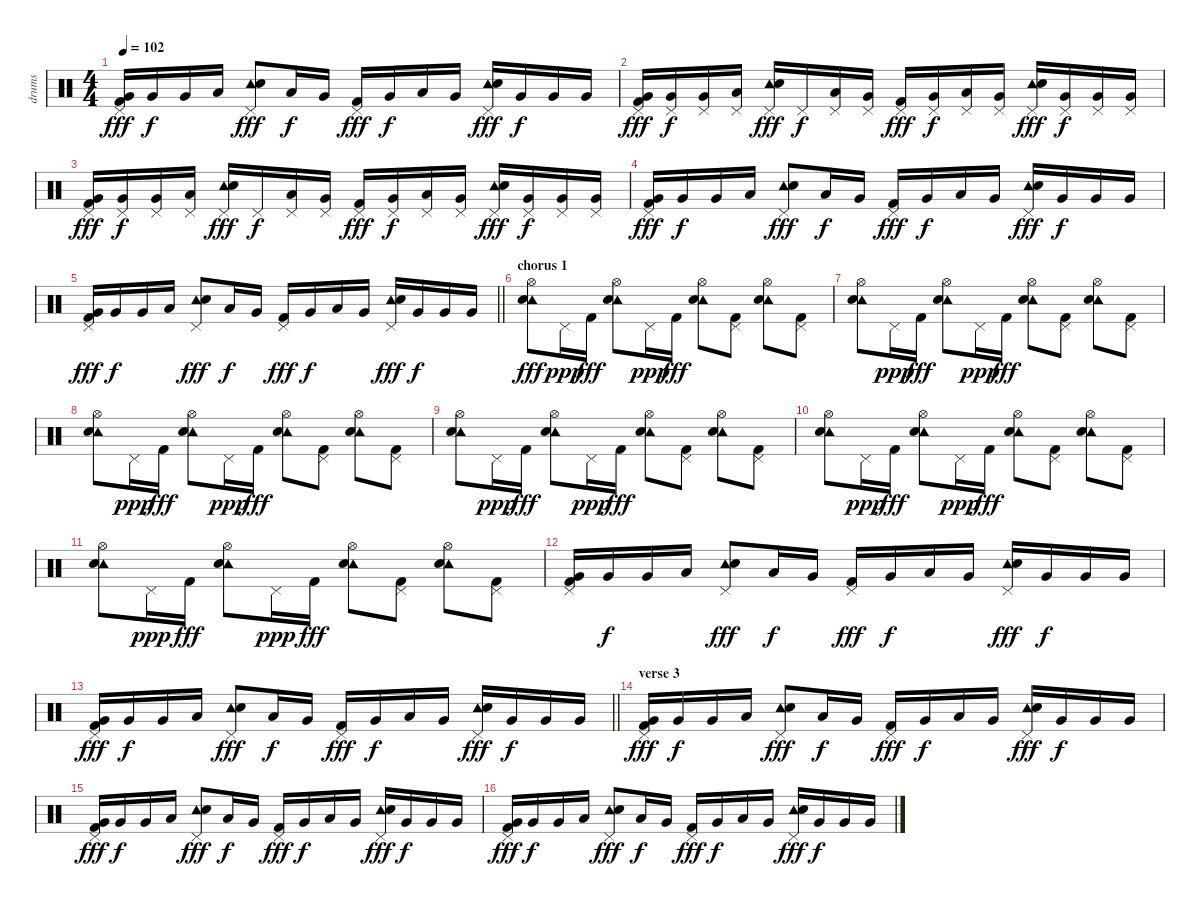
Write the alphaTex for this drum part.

\track ("drums" "drums") {instrument percussion}
\staff {score}
\articulation defaults
\ts (4 4)
\tempo 102
\clef neutral
\ks c
("Pedal Hi-Hat (hit)" "Very Low Tom (hit)" "Kick (hit) 2").16{dy fff} "Very Low Tom (hit)".16{dy f} "Very Low Tom (hit)".16 "Low Tom (hit)".16 ("Tambourine (hit)" "Pedal Hi-Hat (hit)" "Electric Snare (hit)").8{dy fff} "Low Tom (hit)".16{dy f} "Very Low Tom (hit)".16 ("Pedal Hi-Hat (hit)" "Kick (hit) 2").16{dy fff} "Very Low Tom (hit)".16{dy f} "Low Tom (hit)".16 "Very Low Tom (hit)".16 ("Tambourine (hit)" "Pedal Hi-Hat (hit)" "Electric Snare (hit)").16{dy fff} "Very Low Tom (hit)".16{dy f} "Very Low Tom (hit)".16 "Very Low Tom (hit)".16 |
("Pedal Hi-Hat (hit)" "Very Low Tom (hit)" "Kick (hit) 2").16{dy fff} ("Pedal Hi-Hat (hit)" "Very Low Tom (hit)").16{dy f} ("Pedal Hi-Hat (hit)" "Very Low Tom (hit)").16 ("Pedal Hi-Hat (hit)" "Low Tom (hit)").16 ("Tambourine (hit)" "Pedal Hi-Hat (hit)" "Electric Snare (hit)").16{dy fff} "Pedal Hi-Hat (hit)".16{dy f} ("Pedal Hi-Hat (hit)" "Low Tom (hit)").16 ("Pedal Hi-Hat (hit)" "Very Low Tom (hit)").16 ("Pedal Hi-Hat (hit)" "Kick (hit) 2").16{dy fff} ("Pedal Hi-Hat (hit)" "Very Low Tom (hit)").16{dy f} ("Pedal Hi-Hat (hit)" "Low Tom (hit)").16 ("Pedal Hi-Hat (hit)" "Very Low Tom (hit)").16 ("Tambourine (hit)" "Pedal Hi-Hat (hit)" "Electric Snare (hit)").16{dy fff} ("Pedal Hi-Hat (hit)" "Very Low Tom (hit)").16{dy f} ("Pedal Hi-Hat (hit)" "Very Low Tom (hit)").16 ("Pedal Hi-Hat (hit)" "Very Low Tom (hit)").16 |
("Pedal Hi-Hat (hit)" "Very Low Tom (hit)" "Kick (hit) 2").16{dy fff} ("Pedal Hi-Hat (hit)" "Very Low Tom (hit)").16{dy f} ("Pedal Hi-Hat (hit)" "Very Low Tom (hit)").16 ("Pedal Hi-Hat (hit)" "Low Tom (hit)").16 ("Tambourine (hit)" "Pedal Hi-Hat (hit)" "Electric Snare (hit)").16{dy fff} "Pedal Hi-Hat (hit)".16{dy f} ("Pedal Hi-Hat (hit)" "Low Tom (hit)").16 ("Pedal Hi-Hat (hit)" "Very Low Tom (hit)").16 ("Pedal Hi-Hat (hit)" "Kick (hit) 2").16{dy fff} ("Pedal Hi-Hat (hit)" "Very Low Tom (hit)").16{dy f} ("Pedal Hi-Hat (hit)" "Low Tom (hit)").16 ("Pedal Hi-Hat (hit)" "Very Low Tom (hit)").16 ("Tambourine (hit)" "Pedal Hi-Hat (hit)" "Electric Snare (hit)").16{dy fff} ("Pedal Hi-Hat (hit)" "Very Low Tom (hit)").16{dy f} ("Pedal Hi-Hat (hit)" "Very Low Tom (hit)").16 ("Pedal Hi-Hat (hit)" "Very Low Tom (hit)").16 |
("Pedal Hi-Hat (hit)" "Very Low Tom (hit)" "Kick (hit) 2").16{dy fff} "Very Low Tom (hit)".16{dy f} "Very Low Tom (hit)".16 "Low Tom (hit)".16 ("Tambourine (hit)" "Pedal Hi-Hat (hit)" "Electric Snare (hit)").8{dy fff} "Low Tom (hit)".16{dy f} "Very Low Tom (hit)".16 ("Pedal Hi-Hat (hit)" "Kick (hit) 2").16{dy fff} "Very Low Tom (hit)".16{dy f} "Low Tom (hit)".16 "Very Low Tom (hit)".16 ("Tambourine (hit)" "Pedal Hi-Hat (hit)" "Electric Snare (hit)").16{dy fff} "Very Low Tom (hit)".16{dy f} "Very Low Tom (hit)".16 "Very Low Tom (hit)".16 |
\barLineRight lightlight
("Pedal Hi-Hat (hit)" "Very Low Tom (hit)" "Kick (hit) 2").16{dy fff} "Very Low Tom (hit)".16{dy f} "Very Low Tom (hit)".16 "Low Tom (hit)".16 ("Tambourine (hit)" "Pedal Hi-Hat (hit)" "Electric Snare (hit)").8{dy fff} "Low Tom (hit)".16{dy f} "Very Low Tom (hit)".16 ("Pedal Hi-Hat (hit)" "Kick (hit) 2").16{dy fff} "Very Low Tom (hit)".16{dy f} "Low Tom (hit)".16 "Very Low Tom (hit)".16 ("Tambourine (hit)" "Pedal Hi-Hat (hit)" "Electric Snare (hit)").16{dy fff} "Very Low Tom (hit)".16{dy f} "Very Low Tom (hit)".16 "Very Low Tom (hit)".16 |
\section ("" "chorus 1")
("Tambourine (hit)" "Hi-Hat (open)" "Electric Snare (hit)").8{dy fff} "Pedal Hi-Hat (hit)".16{dy ppp} "Kick (hit) 2".16{dy fff} ("Tambourine (hit)" "Hi-Hat (open)" "Electric Snare (hit)").8 "Pedal Hi-Hat (hit)".16{dy ppp} "Kick (hit) 2".16{dy fff} ("Tambourine (hit)" "Hi-Hat (open)" "Electric Snare (hit)").8 ("Pedal Hi-Hat (hit)" "Kick (hit) 2").8 ("Tambourine (hit)" "Hi-Hat (open)" "Electric Snare (hit)").8 ("Pedal Hi-Hat (hit)" "Kick (hit) 2").8 |
("Tambourine (hit)" "Hi-Hat (open)" "Electric Snare (hit)").8 "Pedal Hi-Hat (hit)".16{dy ppp} "Kick (hit) 2".16{dy fff} ("Tambourine (hit)" "Hi-Hat (open)" "Electric Snare (hit)").8 "Pedal Hi-Hat (hit)".16{dy ppp} "Kick (hit) 2".16{dy fff} ("Tambourine (hit)" "Hi-Hat (open)" "Electric Snare (hit)").8 ("Pedal Hi-Hat (hit)" "Kick (hit) 2").8 ("Tambourine (hit)" "Hi-Hat (open)" "Electric Snare (hit)").8 ("Pedal Hi-Hat (hit)" "Kick (hit) 2").8 |
("Tambourine (hit)" "Hi-Hat (open)" "Electric Snare (hit)").8 "Pedal Hi-Hat (hit)".16{dy ppp} "Kick (hit) 2".16{dy fff} ("Tambourine (hit)" "Hi-Hat (open)" "Electric Snare (hit)").8 "Pedal Hi-Hat (hit)".16{dy ppp} "Kick (hit) 2".16{dy fff} ("Tambourine (hit)" "Hi-Hat (open)" "Electric Snare (hit)").8 ("Pedal Hi-Hat (hit)" "Kick (hit) 2").8 ("Tambourine (hit)" "Hi-Hat (open)" "Electric Snare (hit)").8 ("Pedal Hi-Hat (hit)" "Kick (hit) 2").8 |
("Tambourine (hit)" "Hi-Hat (open)" "Electric Snare (hit)").8 "Pedal Hi-Hat (hit)".16{dy ppp} "Kick (hit) 2".16{dy fff} ("Tambourine (hit)" "Hi-Hat (open)" "Electric Snare (hit)").8 "Pedal Hi-Hat (hit)".16{dy ppp} "Kick (hit) 2".16{dy fff} ("Tambourine (hit)" "Hi-Hat (open)" "Electric Snare (hit)").8 ("Pedal Hi-Hat (hit)" "Kick (hit) 2").8 ("Tambourine (hit)" "Hi-Hat (open)" "Electric Snare (hit)").8 ("Pedal Hi-Hat (hit)" "Kick (hit) 2").8 |
("Tambourine (hit)" "Hi-Hat (open)" "Electric Snare (hit)").8 "Pedal Hi-Hat (hit)".16{dy ppp} "Kick (hit) 2".16{dy fff} ("Tambourine (hit)" "Hi-Hat (open)" "Electric Snare (hit)").8 "Pedal Hi-Hat (hit)".16{dy ppp} "Kick (hit) 2".16{dy fff} ("Tambourine (hit)" "Hi-Hat (open)" "Electric Snare (hit)").8 ("Pedal Hi-Hat (hit)" "Kick (hit) 2").8 ("Tambourine (hit)" "Hi-Hat (open)" "Electric Snare (hit)").8 ("Pedal Hi-Hat (hit)" "Kick (hit) 2").8 |
("Tambourine (hit)" "Hi-Hat (open)" "Electric Snare (hit)").8 "Pedal Hi-Hat (hit)".16{dy ppp} "Kick (hit) 2".16{dy fff} ("Tambourine (hit)" "Hi-Hat (open)" "Electric Snare (hit)").8 "Pedal Hi-Hat (hit)".16{dy ppp} "Kick (hit) 2".16{dy fff} ("Tambourine (hit)" "Hi-Hat (open)" "Electric Snare (hit)").8 ("Pedal Hi-Hat (hit)" "Kick (hit) 2").8 ("Tambourine (hit)" "Hi-Hat (open)" "Electric Snare (hit)").8 ("Pedal Hi-Hat (hit)" "Kick (hit) 2").8 |
("Pedal Hi-Hat (hit)" "Very Low Tom (hit)" "Kick (hit) 2").16 "Very Low Tom (hit)".16{dy f} "Very Low Tom (hit)".16 "Low Tom (hit)".16 ("Tambourine (hit)" "Pedal Hi-Hat (hit)" "Electric Snare (hit)").8{dy fff} "Low Tom (hit)".16{dy f} "Very Low Tom (hit)".16 ("Pedal Hi-Hat (hit)" "Kick (hit) 2").16{dy fff} "Very Low Tom (hit)".16{dy f} "Low Tom (hit)".16 "Very Low Tom (hit)".16 ("Tambourine (hit)" "Pedal Hi-Hat (hit)" "Electric Snare (hit)").16{dy fff} "Very Low Tom (hit)".16{dy f} "Very Low Tom (hit)".16 "Very Low Tom (hit)".16 |
\barLineRight lightlight
("Pedal Hi-Hat (hit)" "Very Low Tom (hit)" "Kick (hit) 2").16{dy fff} "Very Low Tom (hit)".16{dy f} "Very Low Tom (hit)".16 "Low Tom (hit)".16 ("Tambourine (hit)" "Pedal Hi-Hat (hit)" "Electric Snare (hit)").8{dy fff} "Low Tom (hit)".16{dy f} "Very Low Tom (hit)".16 ("Pedal Hi-Hat (hit)" "Kick (hit) 2").16{dy fff} "Very Low Tom (hit)".16{dy f} "Low Tom (hit)".16 "Very Low Tom (hit)".16 ("Tambourine (hit)" "Pedal Hi-Hat (hit)" "Electric Snare (hit)").16{dy fff} "Very Low Tom (hit)".16{dy f} "Very Low Tom (hit)".16 "Very Low Tom (hit)".16 |
\section ("" "verse 3")
("Pedal Hi-Hat (hit)" "Very Low Tom (hit)" "Kick (hit) 2").16{dy fff} "Very Low Tom (hit)".16{dy f} "Very Low Tom (hit)".16 "Low Tom (hit)".16 ("Tambourine (hit)" "Pedal Hi-Hat (hit)" "Electric Snare (hit)").8{dy fff} "Low Tom (hit)".16{dy f} "Very Low Tom (hit)".16 ("Pedal Hi-Hat (hit)" "Kick (hit) 2").16{dy fff} "Very Low Tom (hit)".16{dy f} "Low Tom (hit)".16 "Very Low Tom (hit)".16 ("Tambourine (hit)" "Pedal Hi-Hat (hit)" "Electric Snare (hit)").16{dy fff} "Very Low Tom (hit)".16{dy f} "Very Low Tom (hit)".16 "Very Low Tom (hit)".16 |
("Pedal Hi-Hat (hit)" "Very Low Tom (hit)" "Kick (hit) 2").16{dy fff} "Very Low Tom (hit)".16{dy f} "Very Low Tom (hit)".16 "Low Tom (hit)".16 ("Tambourine (hit)" "Pedal Hi-Hat (hit)" "Electric Snare (hit)").8{dy fff} "Low Tom (hit)".16{dy f} "Very Low Tom (hit)".16 ("Pedal Hi-Hat (hit)" "Kick (hit) 2").16{dy fff} "Very Low Tom (hit)".16{dy f} "Low Tom (hit)".16 "Very Low Tom (hit)".16 ("Tambourine (hit)" "Pedal Hi-Hat (hit)" "Electric Snare (hit)").16{dy fff} "Very Low Tom (hit)".16{dy f} "Very Low Tom (hit)".16 "Very Low Tom (hit)".16 |
("Pedal Hi-Hat (hit)" "Very Low Tom (hit)" "Kick (hit) 2").16{dy fff} "Very Low Tom (hit)".16{dy f} "Very Low Tom (hit)".16 "Low Tom (hit)".16 ("Tambourine (hit)" "Pedal Hi-Hat (hit)" "Electric Snare (hit)").8{dy fff} "Low Tom (hit)".16{dy f} "Very Low Tom (hit)".16 ("Pedal Hi-Hat (hit)" "Kick (hit) 2").16{dy fff} "Very Low Tom (hit)".16{dy f} "Low Tom (hit)".16 "Very Low Tom (hit)".16 ("Tambourine (hit)" "Pedal Hi-Hat (hit)" "Electric Snare (hit)").16{dy fff} "Very Low Tom (hit)".16{dy f} "Very Low Tom (hit)".16 "Very Low Tom (hit)".16
